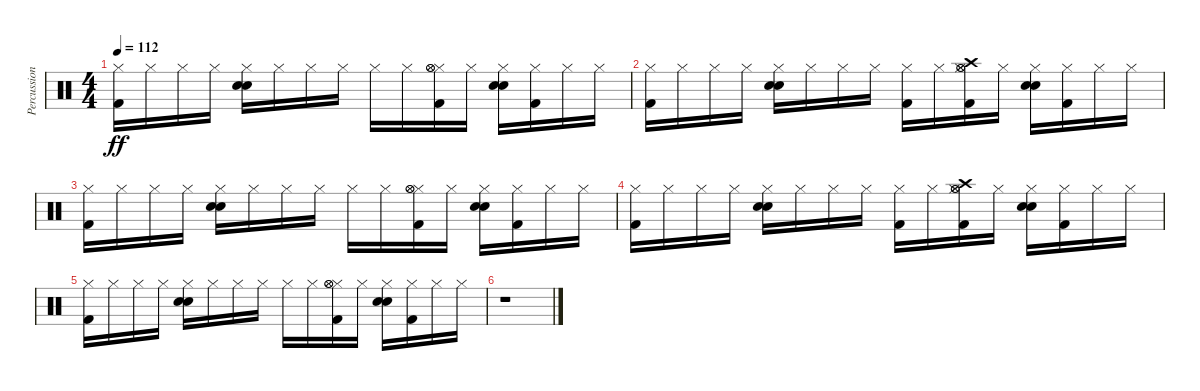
\track ("Percussion" "Percussion") {instrument percussion}
\staff {score}
\articulation defaults
\ts (4 4)
\tempo 112
\clef neutral
\ks c
("Kick (hit) 2" "Hi-Hat (closed)").16{dy ff} "Hi-Hat (closed)".16 "Hi-Hat (closed)".16 "Hi-Hat (closed)".16 ("Snare (hit) 2" "Hi-Hat (closed)" "Hand Clap (hit)").16 "Hi-Hat (closed)".16 "Hi-Hat (closed)".16 "Hi-Hat (closed)".16 "Hi-Hat (closed)".16 "Hi-Hat (closed)".16 ("Kick (hit) 2" "Hi-Hat (closed)" "Hi-Hat (open)" "Hi-Hat (open)").16 "Hi-Hat (closed)".16 ("Snare (hit) 2" "Hi-Hat (closed)" "Hand Clap (hit)").16 ("Kick (hit) 2" "Hi-Hat (closed)").16 "Hi-Hat (closed)".16 "Hi-Hat (closed)".16 |
("Kick (hit) 2" "Hi-Hat (closed)").16 "Hi-Hat (closed)".16 "Hi-Hat (closed)".16 "Hi-Hat (closed)".16 ("Snare (hit) 2" "Hi-Hat (closed)" "Hand Clap (hit)").16 "Hi-Hat (closed)".16 "Hi-Hat (closed)".16 "Hi-Hat (closed)".16 ("Kick (hit) 2" "Hi-Hat (closed)").16 "Hi-Hat (closed)".16 ("Kick (hit) 2" "Crash high (hit)" "Hi-Hat (closed)" "Hi-Hat (open)" "Hi-Hat (open)").16 "Hi-Hat (closed)".16 ("Snare (hit) 2" "Hi-Hat (closed)" "Hand Clap (hit)").16 ("Kick (hit) 2" "Hi-Hat (closed)").16 "Hi-Hat (closed)".16 "Hi-Hat (closed)".16 |
("Kick (hit) 2" "Hi-Hat (closed)").16 "Hi-Hat (closed)".16 "Hi-Hat (closed)".16 "Hi-Hat (closed)".16 ("Snare (hit) 2" "Hi-Hat (closed)" "Hand Clap (hit)").16 "Hi-Hat (closed)".16 "Hi-Hat (closed)".16 "Hi-Hat (closed)".16 "Hi-Hat (closed)".16 "Hi-Hat (closed)".16 ("Kick (hit) 2" "Hi-Hat (closed)" "Hi-Hat (open)" "Hi-Hat (open)").16 "Hi-Hat (closed)".16 ("Snare (hit) 2" "Hi-Hat (closed)" "Hand Clap (hit)").16 ("Kick (hit) 2" "Hi-Hat (closed)").16 "Hi-Hat (closed)".16 "Hi-Hat (closed)".16 |
("Kick (hit) 2" "Hi-Hat (closed)").16 "Hi-Hat (closed)".16 "Hi-Hat (closed)".16 "Hi-Hat (closed)".16 ("Snare (hit) 2" "Hi-Hat (closed)" "Hand Clap (hit)").16 "Hi-Hat (closed)".16 "Hi-Hat (closed)".16 "Hi-Hat (closed)".16 ("Kick (hit) 2" "Hi-Hat (closed)").16 "Hi-Hat (closed)".16 ("Kick (hit) 2" "Crash high (hit)" "Hi-Hat (closed)" "Hi-Hat (open)" "Hi-Hat (open)").16 "Hi-Hat (closed)".16 ("Snare (hit) 2" "Hi-Hat (closed)" "Hand Clap (hit)").16 ("Kick (hit) 2" "Hi-Hat (closed)").16 "Hi-Hat (closed)".16 "Hi-Hat (closed)".16 |
("Kick (hit) 2" "Hi-Hat (closed)").16 "Hi-Hat (closed)".16 "Hi-Hat (closed)".16 "Hi-Hat (closed)".16 ("Snare (hit) 2" "Hi-Hat (closed)" "Hand Clap (hit)").16 "Hi-Hat (closed)".16 "Hi-Hat (closed)".16 "Hi-Hat (closed)".16 "Hi-Hat (closed)".16 "Hi-Hat (closed)".16 ("Kick (hit) 2" "Hi-Hat (closed)" "Hi-Hat (open)" "Hi-Hat (open)").16 "Hi-Hat (closed)".16 ("Snare (hit) 2" "Hi-Hat (closed)" "Hand Clap (hit)").16 ("Kick (hit) 2" "Hi-Hat (closed)").16 "Hi-Hat (closed)".16 "Hi-Hat (closed)".16 |
r.1
